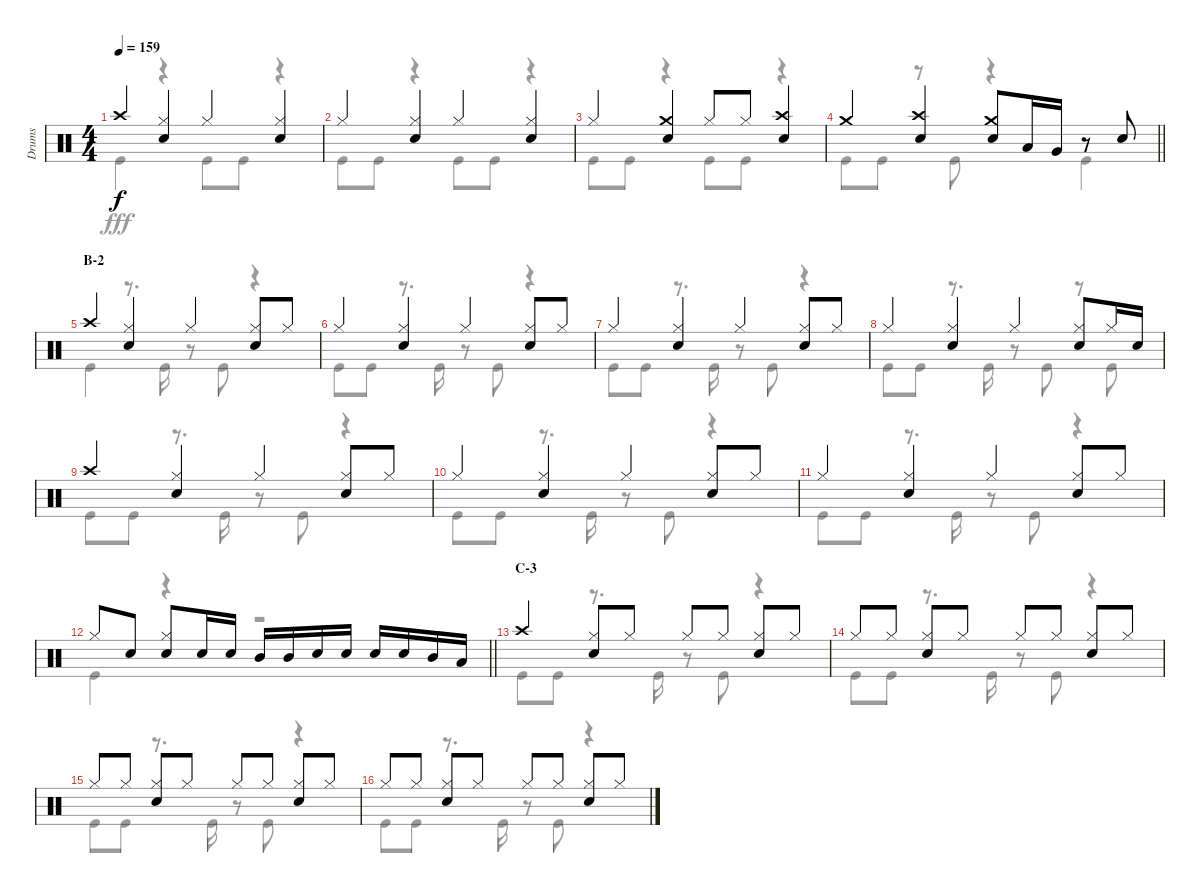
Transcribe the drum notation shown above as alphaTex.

\track ("Drums" "Drums") {instrument percussion}
\staff {score}
\articulation defaults
\voice
\ts (4 4)
\tempo 159
\clef neutral
\ks c "Crash high (hit)".4{dy f}
("Hi-Hat (closed)" "Snare (hit) 2").4 "Hi-Hat (closed)".4 ("Hi-Hat (closed)" "Snare (hit) 2").4 |
"Hi-Hat (closed)".4 ("Hi-Hat (closed)" "Snare (hit) 2").4 "Hi-Hat (closed)".4 ("Hi-Hat (closed)" "Snare (hit) 2").4 |
"Hi-Hat (closed)".4 ("Crash medium (hit)" "Snare (hit) 2").4 "Hi-Hat (closed)".8 "Hi-Hat (closed)".8 ("Crash high (hit)" "Snare (hit) 2").4 |
\barLineRight lightlight "Crash medium (hit)".4
("Crash high (hit)" "Snare (hit) 2").4 ("Crash medium (hit)" "Snare (hit) 2").8 "Low Tom (hit)".16 "Very Low Tom (hit)".16 r.8 "Snare (hit) 2".8 |
\section ("" "B-2")
"Crash high (hit)".4 ("Hi-Hat (closed)" "Snare (hit) 2").4 "Hi-Hat (closed)".4 ("Hi-Hat (closed)" "Snare (hit) 2").8 "Hi-Hat (closed)".8 |
"Hi-Hat (closed)".4 ("Hi-Hat (closed)" "Snare (hit) 2").4 "Hi-Hat (closed)".4 ("Hi-Hat (closed)" "Snare (hit) 2").8 "Hi-Hat (closed)".8 |
"Hi-Hat (closed)".4 ("Hi-Hat (closed)" "Snare (hit) 2").4 "Hi-Hat (closed)".4 ("Hi-Hat (closed)" "Snare (hit) 2").8 "Hi-Hat (closed)".8 |
"Hi-Hat (closed)".4 ("Hi-Hat (closed)" "Snare (hit) 2").4 "Hi-Hat (closed)".4 ("Hi-Hat (closed)" "Snare (hit) 2").8 "Hi-Hat (closed)".16 "Snare (hit) 2".16 |
"Crash high (hit)".4 ("Hi-Hat (closed)" "Snare (hit) 2").4 "Hi-Hat (closed)".4 ("Hi-Hat (closed)" "Snare (hit) 2").8 "Hi-Hat (closed)".8 |
"Hi-Hat (closed)".4 ("Hi-Hat (closed)" "Snare (hit) 2").4 "Hi-Hat (closed)".4 ("Hi-Hat (closed)" "Snare (hit) 2").8 "Hi-Hat (closed)".8 |
"Hi-Hat (closed)".4 ("Hi-Hat (closed)" "Snare (hit) 2").4 "Hi-Hat (closed)".4 ("Hi-Hat (closed)" "Snare (hit) 2").8 "Hi-Hat (closed)".8 |
\barLineRight lightlight "Hi-Hat (closed)".8 "Snare (hit) 2".8
("Hi-Hat (closed)" "Snare (hit) 2").8 "Snare (hit) 2".16 "Snare (hit) 2".16 "Mid Tom (hit)".16 "Mid Tom (hit)".16 "Snare (hit) 2".16 "Snare (hit) 2".16 "Snare (hit) 2".16 "Snare (hit) 2".16 "Mid Tom (hit)".16 "Low Tom (hit)".16 |
\section ("" "C-3")
"Crash high (hit)".4 ("Hi-Hat (closed)" "Snare (hit) 2").8 "Hi-Hat (closed)".8 "Hi-Hat (closed)".8 "Hi-Hat (closed)".8 ("Hi-Hat (closed)" "Snare (hit) 2").8 "Hi-Hat (closed)".8 |
"Hi-Hat (closed)".8 "Hi-Hat (closed)".8 ("Hi-Hat (closed)" "Snare (hit) 2").8 "Hi-Hat (closed)".8 "Hi-Hat (closed)".8 "Hi-Hat (closed)".8 ("Hi-Hat (closed)" "Snare (hit) 2").8 "Hi-Hat (closed)".8 |
"Hi-Hat (closed)".8 "Hi-Hat (closed)".8 ("Hi-Hat (closed)" "Snare (hit) 2").8 "Hi-Hat (closed)".8 "Hi-Hat (closed)".8 "Hi-Hat (closed)".8 ("Hi-Hat (closed)" "Snare (hit) 2").8 "Hi-Hat (closed)".8 |
"Hi-Hat (closed)".8 "Hi-Hat (closed)".8 ("Hi-Hat (closed)" "Snare (hit) 2").8 "Hi-Hat (closed)".8 "Hi-Hat (closed)".8 "Hi-Hat (closed)".8 ("Hi-Hat (closed)" "Snare (hit) 2").8 "Hi-Hat (closed)".8
\voice
\clef neutral
\ottava regular
\simile none
\ks c "Kick (hit)".4{dy fff}
r.4 "Kick (hit)".8 "Kick (hit)".8 r.4 |
"Kick (hit)".8 "Kick (hit)".8 r.4 "Kick (hit)".8 "Kick (hit)".8 r.4 |
"Kick (hit)".8 "Kick (hit)".8 r.4 "Kick (hit)".8 "Kick (hit)".8 r.4 |
\barLineRight lightlight "Kick (hit)".8 "Kick (hit)".8
r.8 "Kick (hit)".8 r.4 "Kick (hit)".4 |
"Kick (hit)".4 r.8{d} "Kick (hit)".16 r.8 "Kick (hit)".8 r.4 |
"Kick (hit)".8 "Kick (hit)".8 r.8{d} "Kick (hit)".16 r.8 "Kick (hit)".8 r.4 |
"Kick (hit)".8 "Kick (hit)".8 r.8{d} "Kick (hit)".16 r.8 "Kick (hit)".8 r.4 |
"Kick (hit)".8 "Kick (hit)".8 r.8{d} "Kick (hit)".16 r.8 "Kick (hit)".8 r.8 "Kick (hit)".8 |
"Kick (hit)".8 "Kick (hit)".8 r.8{d} "Kick (hit)".16 r.8 "Kick (hit)".8 r.4 |
"Kick (hit)".8 "Kick (hit)".8 r.8{d} "Kick (hit)".16 r.8 "Kick (hit)".8 r.4 |
"Kick (hit)".8 "Kick (hit)".8 r.8{d} "Kick (hit)".16 r.8 "Kick (hit)".8 r.4 |
\barLineRight lightlight "Kick (hit)".4
r.4 r.2 |
"Kick (hit)".8 "Kick (hit)".8 r.8{d} "Kick (hit)".16 r.8 "Kick (hit)".8 r.4 |
"Kick (hit)".8 "Kick (hit)".8 r.8{d} "Kick (hit)".16 r.8 "Kick (hit)".8 r.4 |
"Kick (hit)".8 "Kick (hit)".8 r.8{d} "Kick (hit)".16 r.8 "Kick (hit)".8 r.4 |
"Kick (hit)".8 "Kick (hit)".8 r.8{d} "Kick (hit)".16 r.8 "Kick (hit)".8 r.4
